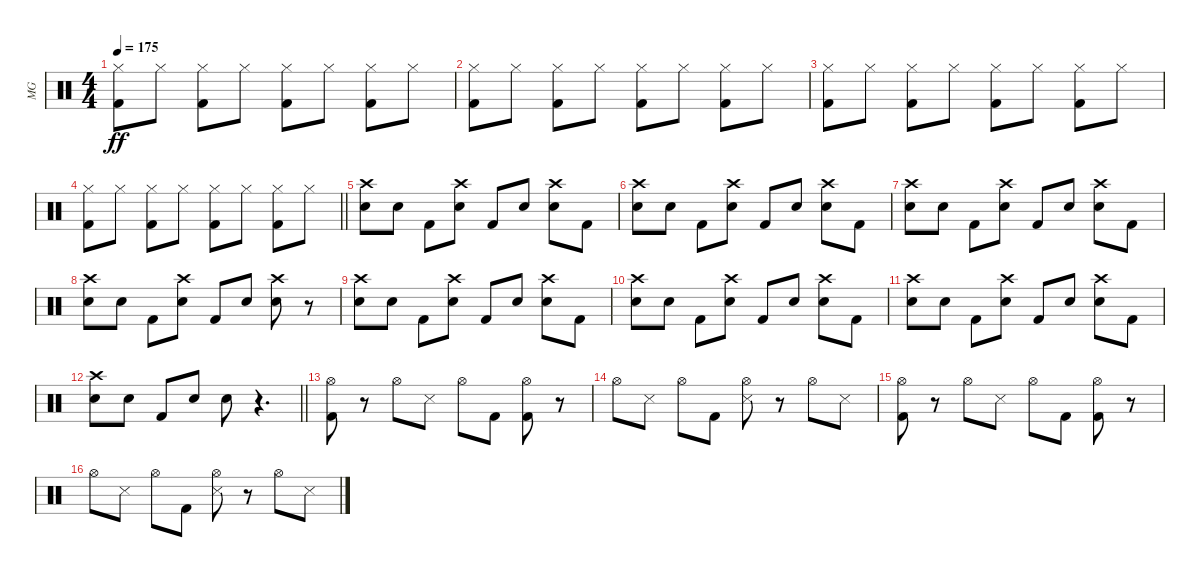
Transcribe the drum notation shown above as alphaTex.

\track ("MG" "MG") {instrument percussion}
\staff {score}
\articulation defaults
\ts (4 4)
\section ("" "")
\tempo 175
\clef neutral
\ks c
("Hi-Hat (closed)" "Kick (hit) 2").8{dy ff} "Hi-Hat (closed)".8 ("Hi-Hat (closed)" "Kick (hit) 2").8 "Hi-Hat (closed)".8 ("Hi-Hat (closed)" "Kick (hit) 2").8 "Hi-Hat (closed)".8 ("Hi-Hat (closed)" "Kick (hit) 2").8 "Hi-Hat (closed)".8 |
("Hi-Hat (closed)" "Kick (hit) 2").8 "Hi-Hat (closed)".8 ("Hi-Hat (closed)" "Kick (hit) 2").8 "Hi-Hat (closed)".8 ("Hi-Hat (closed)" "Kick (hit) 2").8 "Hi-Hat (closed)".8 ("Hi-Hat (closed)" "Kick (hit) 2").8 "Hi-Hat (closed)".8 |
("Hi-Hat (closed)" "Kick (hit) 2").8 "Hi-Hat (closed)".8 ("Hi-Hat (closed)" "Kick (hit) 2").8 "Hi-Hat (closed)".8 ("Hi-Hat (closed)" "Kick (hit) 2").8 "Hi-Hat (closed)".8 ("Hi-Hat (closed)" "Kick (hit) 2").8 "Hi-Hat (closed)".8 |
\barLineRight lightlight
("Hi-Hat (closed)" "Kick (hit) 2").8 "Hi-Hat (closed)".8 ("Hi-Hat (closed)" "Kick (hit) 2").8 "Hi-Hat (closed)".8 ("Hi-Hat (closed)" "Kick (hit) 2").8 "Hi-Hat (closed)".8 ("Hi-Hat (closed)" "Kick (hit) 2").8 "Hi-Hat (closed)".8 |
\section ("" "")
("Crash high (hit)" "Electric Snare (hit)").8 "Electric Snare (hit)".8 "Kick (hit) 2".8 ("Crash high (hit)" "Electric Snare (hit)").8 "Kick (hit) 2".8 "Electric Snare (hit)".8 ("Crash high (hit)" "Electric Snare (hit)").8 "Kick (hit) 2".8 |
("Crash high (hit)" "Electric Snare (hit)").8 "Electric Snare (hit)".8 "Kick (hit) 2".8 ("Crash high (hit)" "Electric Snare (hit)").8 "Kick (hit) 2".8 "Electric Snare (hit)".8 ("Crash high (hit)" "Electric Snare (hit)").8 "Kick (hit) 2".8 |
("Crash high (hit)" "Electric Snare (hit)").8 "Electric Snare (hit)".8 "Kick (hit) 2".8 ("Crash high (hit)" "Electric Snare (hit)").8 "Kick (hit) 2".8 "Electric Snare (hit)".8 ("Crash high (hit)" "Electric Snare (hit)").8 "Kick (hit) 2".8 |
("Crash high (hit)" "Electric Snare (hit)").8 "Electric Snare (hit)".8 "Kick (hit) 2".8 ("Crash high (hit)" "Electric Snare (hit)").8 "Kick (hit) 2".8 "Electric Snare (hit)".8 ("Crash high (hit)" "Electric Snare (hit)").8 r.8 |
("Crash high (hit)" "Electric Snare (hit)").8 "Electric Snare (hit)".8 "Kick (hit) 2".8 ("Crash high (hit)" "Electric Snare (hit)").8 "Kick (hit) 2".8 "Electric Snare (hit)".8 ("Crash high (hit)" "Electric Snare (hit)").8 "Kick (hit) 2".8 |
("Crash high (hit)" "Electric Snare (hit)").8 "Electric Snare (hit)".8 "Kick (hit) 2".8 ("Crash high (hit)" "Electric Snare (hit)").8 "Kick (hit) 2".8 "Electric Snare (hit)".8 ("Crash high (hit)" "Electric Snare (hit)").8 "Kick (hit) 2".8 |
("Crash high (hit)" "Electric Snare (hit)").8 "Electric Snare (hit)".8 "Kick (hit) 2".8 ("Crash high (hit)" "Electric Snare (hit)").8 "Kick (hit) 2".8 "Electric Snare (hit)".8 ("Crash high (hit)" "Electric Snare (hit)").8 "Kick (hit) 2".8 |
\barLineRight lightlight
("Crash high (hit)" "Electric Snare (hit)").8 "Electric Snare (hit)".8 "Kick (hit) 2".8 "Electric Snare (hit)".8 "Electric Snare (hit)".8 r.4{d} |
\section ("" "")
("Hi-Hat (open)" "Kick (hit) 2").8 r.8 "Hi-Hat (open)".8 "Snare (side stick) 3".8 "Hi-Hat (open)".8 "Kick (hit) 2".8 ("Hi-Hat (open)" "Kick (hit) 2").8 r.8 |
"Hi-Hat (open)".8 "Snare (side stick) 3".8 "Hi-Hat (open)".8 "Kick (hit) 2".8 ("Hi-Hat (open)" "Snare (side stick) 3").8 r.8 "Hi-Hat (open)".8 "Snare (side stick) 3".8 |
("Hi-Hat (open)" "Kick (hit) 2").8 r.8 "Hi-Hat (open)".8 "Snare (side stick) 3".8 "Hi-Hat (open)".8 "Kick (hit) 2".8 ("Hi-Hat (open)" "Kick (hit) 2").8 r.8 |
"Hi-Hat (open)".8 "Snare (side stick) 3".8 "Hi-Hat (open)".8 "Kick (hit) 2".8 ("Hi-Hat (open)" "Snare (side stick) 3").8 r.8 "Hi-Hat (open)".8 "Snare (side stick) 3".8
